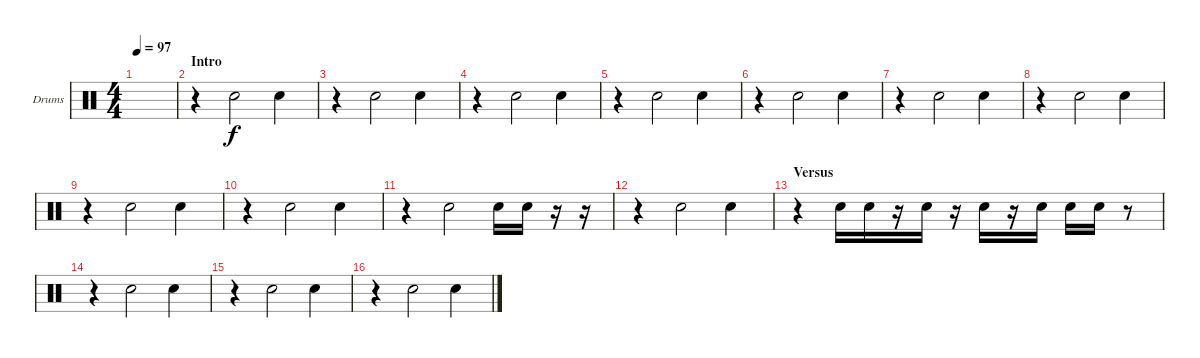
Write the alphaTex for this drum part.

\bracketExtendMode groupsimilarinstruments
\firstSystemTrackNameOrientation horizontal
\otherSystemsTrackNameOrientation horizontal
\track ("Snare" "Drums") {instrument percussion}
\staff {score}
\articulation defaults
\ts (4 4)
\tempo 97
\clef neutral
\ks c
|
\section ("" "Intro")
r.4 "Snare (hit) 2".2 "Snare (hit) 2".4 |
r.4 "Snare (hit) 2".2 "Snare (hit) 2".4 |
r.4 "Snare (hit) 2".2 "Snare (hit) 2".4 |
r.4 "Snare (hit) 2".2 "Snare (hit) 2".4 |
r.4 "Snare (hit) 2".2 "Snare (hit) 2".4 |
r.4 "Snare (hit) 2".2 "Snare (hit) 2".4 |
r.4 "Snare (hit) 2".2 "Snare (hit) 2".4 |
r.4 "Snare (hit) 2".2 "Snare (hit) 2".4 |
r.4 "Snare (hit) 2".2 "Snare (hit) 2".4 |
r.4 "Snare (hit) 2".2 "Snare (hit) 2".16 "Snare (hit) 2".16 r.16 r.16 |
r.4 "Snare (hit) 2".2 "Snare (hit) 2".4 |
\section ("" "Versus")
r.4 "Snare (hit) 2".16 "Snare (hit) 2".16 r.16 "Snare (hit) 2".16 r.16 "Snare (hit) 2".16 r.16 "Snare (hit) 2".16 "Snare (hit) 2".16 "Snare (hit) 2".16 r.8 |
r.4 "Snare (hit) 2".2 "Snare (hit) 2".4 |
r.4 "Snare (hit) 2".2 "Snare (hit) 2".4 |
r.4 "Snare (hit) 2".2 "Snare (hit) 2".4
